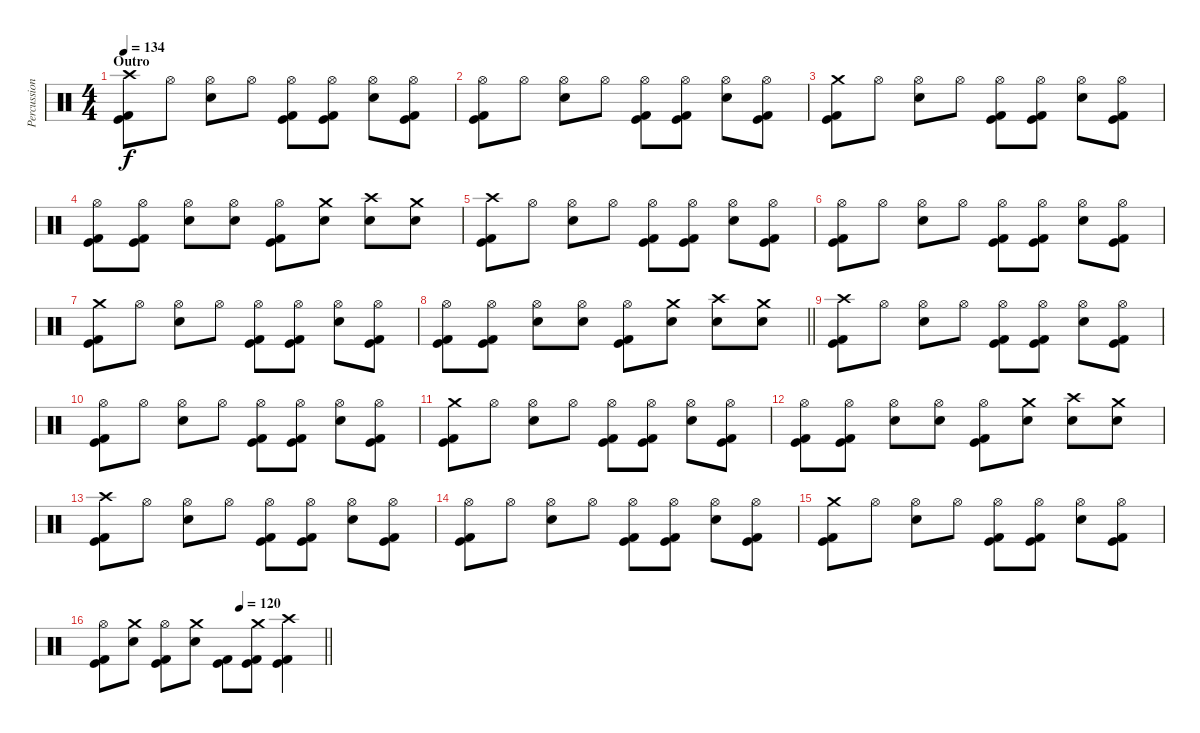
\track ("Percussion" "Percussion") {instrument percussion}
\staff {score}
\articulation defaults
\ts (4 4)
\section ("" "Outro")
\tempo 134
\clef neutral
\ks c
("Crash high (hit)" "Kick (hit)" "Kick (hit) 2").8{dy f} "Hi-Hat (open)".8 ("Hi-Hat (open)" "Electric Snare (hit)").8 "Hi-Hat (open)".8 ("Hi-Hat (open)" "Kick (hit)" "Kick (hit) 2").8 ("Hi-Hat (open)" "Kick (hit)" "Kick (hit) 2").8 ("Hi-Hat (open)" "Electric Snare (hit)").8 ("Hi-Hat (open)" "Kick (hit)" "Kick (hit) 2").8 |
("Hi-Hat (open)" "Kick (hit)" "Kick (hit) 2").8 "Hi-Hat (open)".8 ("Hi-Hat (open)" "Electric Snare (hit)").8 "Hi-Hat (open)".8 ("Hi-Hat (open)" "Kick (hit)" "Kick (hit) 2").8 ("Hi-Hat (open)" "Kick (hit)" "Kick (hit) 2").8 ("Hi-Hat (open)" "Electric Snare (hit)").8 ("Hi-Hat (open)" "Kick (hit)" "Kick (hit) 2").8 |
("Crash medium (hit)" "Kick (hit)" "Kick (hit) 2").8 "Hi-Hat (open)".8 ("Hi-Hat (open)" "Electric Snare (hit)").8 "Hi-Hat (open)".8 ("Hi-Hat (open)" "Kick (hit)" "Kick (hit) 2").8 ("Hi-Hat (open)" "Kick (hit)" "Kick (hit) 2").8 ("Hi-Hat (open)" "Electric Snare (hit)").8 ("Hi-Hat (open)" "Kick (hit)" "Kick (hit) 2").8 |
("Hi-Hat (open)" "Kick (hit)" "Kick (hit) 2").8 ("Hi-Hat (open)" "Kick (hit)" "Kick (hit) 2").8 ("Hi-Hat (open)" "Electric Snare (hit)").8 ("Hi-Hat (open)" "Electric Snare (hit)").8 ("Hi-Hat (open)" "Kick (hit)" "Kick (hit) 2").8 ("Crash medium (hit)" "Electric Snare (hit)").8 ("Crash high (hit)" "Electric Snare (hit)").8 ("Crash medium (hit)" "Electric Snare (hit)").8 |
("Crash high (hit)" "Kick (hit)" "Kick (hit) 2").8 "Hi-Hat (open)".8 ("Hi-Hat (open)" "Electric Snare (hit)").8 "Hi-Hat (open)".8 ("Hi-Hat (open)" "Kick (hit)" "Kick (hit) 2").8 ("Hi-Hat (open)" "Kick (hit)" "Kick (hit) 2").8 ("Hi-Hat (open)" "Electric Snare (hit)").8 ("Hi-Hat (open)" "Kick (hit)" "Kick (hit) 2").8 |
("Hi-Hat (open)" "Kick (hit)" "Kick (hit) 2").8 "Hi-Hat (open)".8 ("Hi-Hat (open)" "Electric Snare (hit)").8 "Hi-Hat (open)".8 ("Hi-Hat (open)" "Kick (hit)" "Kick (hit) 2").8 ("Hi-Hat (open)" "Kick (hit)" "Kick (hit) 2").8 ("Hi-Hat (open)" "Electric Snare (hit)").8 ("Hi-Hat (open)" "Kick (hit)" "Kick (hit) 2").8 |
("Crash medium (hit)" "Kick (hit)" "Kick (hit) 2").8 "Hi-Hat (open)".8 ("Hi-Hat (open)" "Electric Snare (hit)").8 "Hi-Hat (open)".8 ("Hi-Hat (open)" "Kick (hit)" "Kick (hit) 2").8 ("Hi-Hat (open)" "Kick (hit)" "Kick (hit) 2").8 ("Hi-Hat (open)" "Electric Snare (hit)").8 ("Hi-Hat (open)" "Kick (hit)" "Kick (hit) 2").8 |
\barLineRight lightlight
("Hi-Hat (open)" "Kick (hit)" "Kick (hit) 2").8 ("Hi-Hat (open)" "Kick (hit)" "Kick (hit) 2").8 ("Hi-Hat (open)" "Electric Snare (hit)").8 ("Hi-Hat (open)" "Electric Snare (hit)").8 ("Hi-Hat (open)" "Kick (hit)" "Kick (hit) 2").8 ("Crash medium (hit)" "Electric Snare (hit)").8 ("Crash high (hit)" "Electric Snare (hit)").8 ("Crash medium (hit)" "Electric Snare (hit)").8 |
\section ("" "")
("Crash high (hit)" "Kick (hit)" "Kick (hit) 2").8 "Hi-Hat (open)".8 ("Hi-Hat (open)" "Electric Snare (hit)").8 "Hi-Hat (open)".8 ("Hi-Hat (open)" "Kick (hit)" "Kick (hit) 2").8 ("Hi-Hat (open)" "Kick (hit)" "Kick (hit) 2").8 ("Hi-Hat (open)" "Electric Snare (hit)").8 ("Hi-Hat (open)" "Kick (hit)" "Kick (hit) 2").8 |
("Hi-Hat (open)" "Kick (hit)" "Kick (hit) 2").8 "Hi-Hat (open)".8 ("Hi-Hat (open)" "Electric Snare (hit)").8 "Hi-Hat (open)".8 ("Hi-Hat (open)" "Kick (hit)" "Kick (hit) 2").8 ("Hi-Hat (open)" "Kick (hit)" "Kick (hit) 2").8 ("Hi-Hat (open)" "Electric Snare (hit)").8 ("Hi-Hat (open)" "Kick (hit)" "Kick (hit) 2").8 |
("Crash medium (hit)" "Kick (hit)" "Kick (hit) 2").8 "Hi-Hat (open)".8 ("Hi-Hat (open)" "Electric Snare (hit)").8 "Hi-Hat (open)".8 ("Hi-Hat (open)" "Kick (hit)" "Kick (hit) 2").8 ("Hi-Hat (open)" "Kick (hit)" "Kick (hit) 2").8 ("Hi-Hat (open)" "Electric Snare (hit)").8 ("Hi-Hat (open)" "Kick (hit)" "Kick (hit) 2").8 |
("Hi-Hat (open)" "Kick (hit)" "Kick (hit) 2").8 ("Hi-Hat (open)" "Kick (hit)" "Kick (hit) 2").8 ("Hi-Hat (open)" "Electric Snare (hit)").8 ("Hi-Hat (open)" "Electric Snare (hit)").8 ("Hi-Hat (open)" "Kick (hit)" "Kick (hit) 2").8 ("Crash medium (hit)" "Electric Snare (hit)").8 ("Crash high (hit)" "Electric Snare (hit)").8 ("Crash medium (hit)" "Electric Snare (hit)").8 |
("Crash high (hit)" "Kick (hit)" "Kick (hit) 2").8 "Hi-Hat (open)".8 ("Hi-Hat (open)" "Electric Snare (hit)").8 "Hi-Hat (open)".8 ("Hi-Hat (open)" "Kick (hit)" "Kick (hit) 2").8 ("Hi-Hat (open)" "Kick (hit)" "Kick (hit) 2").8 ("Hi-Hat (open)" "Electric Snare (hit)").8 ("Hi-Hat (open)" "Kick (hit)" "Kick (hit) 2").8 |
("Hi-Hat (open)" "Kick (hit)" "Kick (hit) 2").8 "Hi-Hat (open)".8 ("Hi-Hat (open)" "Electric Snare (hit)").8 "Hi-Hat (open)".8 ("Hi-Hat (open)" "Kick (hit)" "Kick (hit) 2").8 ("Hi-Hat (open)" "Kick (hit)" "Kick (hit) 2").8 ("Hi-Hat (open)" "Electric Snare (hit)").8 ("Hi-Hat (open)" "Kick (hit)" "Kick (hit) 2").8 |
("Crash medium (hit)" "Kick (hit)" "Kick (hit) 2").8 "Hi-Hat (open)".8 ("Hi-Hat (open)" "Electric Snare (hit)").8 "Hi-Hat (open)".8 ("Hi-Hat (open)" "Kick (hit)" "Kick (hit) 2").8 ("Hi-Hat (open)" "Kick (hit)" "Kick (hit) 2").8 ("Hi-Hat (open)" "Electric Snare (hit)").8 ("Hi-Hat (open)" "Kick (hit)" "Kick (hit) 2").8 |
\tempo (120 0.625)
\barLineRight lightlight
("Hi-Hat (open)" "Kick (hit)" "Kick (hit) 2").8 ("Crash medium (hit)" "Electric Snare (hit)").8 ("Hi-Hat (open)" "Kick (hit)" "Kick (hit) 2").8 ("Crash medium (hit)" "Electric Snare (hit)").8 ("Kick (hit)" "Kick (hit) 2").8 ("Crash medium (hit)" "Kick (hit)" "Kick (hit) 2").8 ("Crash high (hit)" "Kick (hit)" "Kick (hit) 2").4
